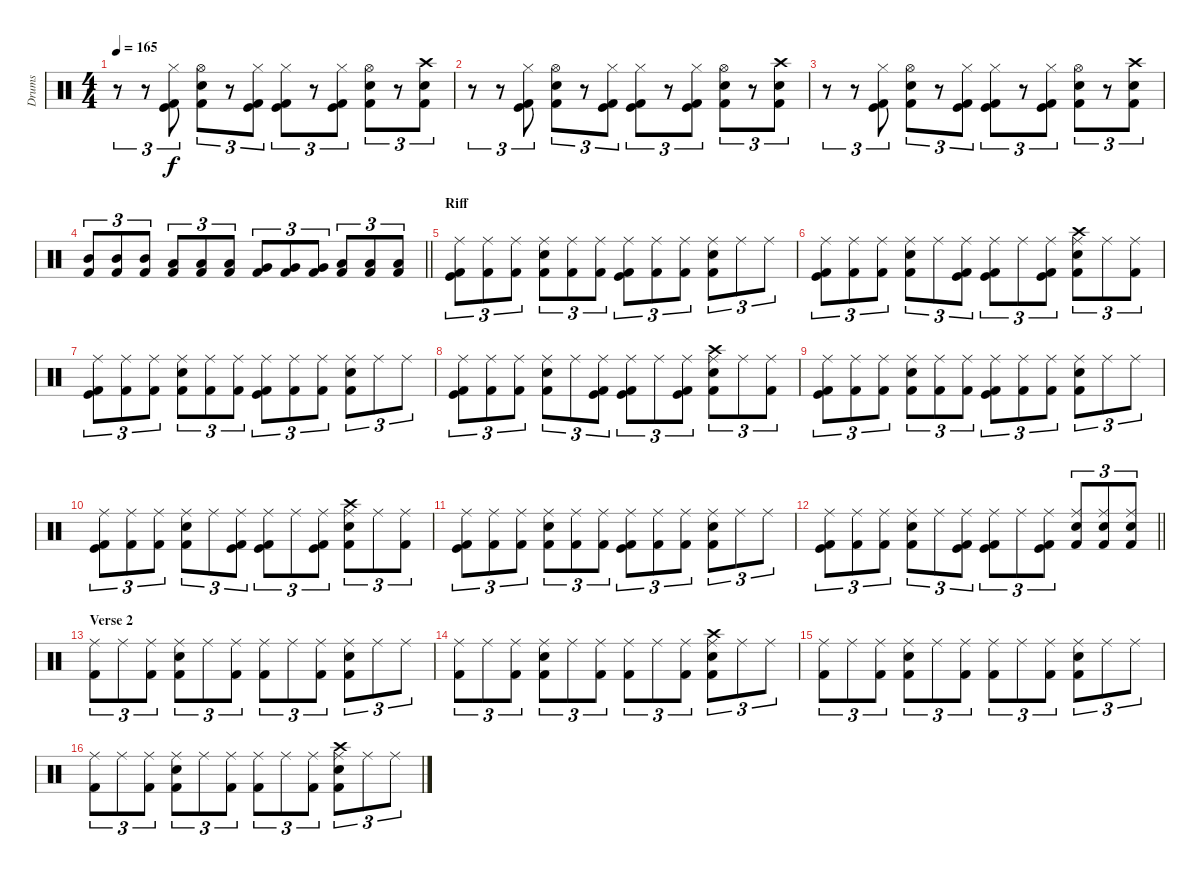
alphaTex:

\track ("Drums" "Drums") {instrument percussion}
\staff {score}
\articulation defaults
\ts (4 4)
\tempo 165
\clef neutral
\ks c
r.8{tu (3 2) dy f} r.8{tu (3 2)} ("Kick (hit)" "Kick (hit) 2" "Hi-Hat (closed)").8{tu (3 2)} ("Snare (hit) 2" "Kick (hit) 2" "Hi-Hat (open)").8{tu (3 2)} r.8{tu (3 2)} ("Kick (hit)" "Kick (hit) 2" "Hi-Hat (closed)").8{tu (3 2)} ("Kick (hit)" "Kick (hit) 2" "Hi-Hat (closed)").8{tu (3 2)} r.8{tu (3 2)} ("Kick (hit)" "Kick (hit) 2" "Hi-Hat (closed)").8{tu (3 2)} ("Snare (hit) 2" "Kick (hit) 2" "Hi-Hat (open)").8{tu (3 2)} r.8{tu (3 2)} ("Snare (hit) 2" "Kick (hit) 2" "Crash high (hit)").8{tu (3 2)} |
r.8{tu (3 2)} r.8{tu (3 2)} ("Kick (hit)" "Kick (hit) 2" "Hi-Hat (closed)").8{tu (3 2)} ("Snare (hit) 2" "Kick (hit) 2" "Hi-Hat (open)").8{tu (3 2)} r.8{tu (3 2)} ("Kick (hit)" "Kick (hit) 2" "Hi-Hat (closed)").8{tu (3 2)} ("Kick (hit)" "Kick (hit) 2" "Hi-Hat (closed)").8{tu (3 2)} r.8{tu (3 2)} ("Kick (hit)" "Kick (hit) 2" "Hi-Hat (closed)").8{tu (3 2)} ("Snare (hit) 2" "Kick (hit) 2" "Hi-Hat (open)").8{tu (3 2)} r.8{tu (3 2)} ("Snare (hit) 2" "Kick (hit) 2" "Crash high (hit)").8{tu (3 2)} |
r.8{tu (3 2)} r.8{tu (3 2)} ("Kick (hit)" "Kick (hit) 2" "Hi-Hat (closed)").8{tu (3 2)} ("Snare (hit) 2" "Kick (hit) 2" "Hi-Hat (open)").8{tu (3 2)} r.8{tu (3 2)} ("Kick (hit)" "Kick (hit) 2" "Hi-Hat (closed)").8{tu (3 2)} ("Kick (hit)" "Kick (hit) 2" "Hi-Hat (closed)").8{tu (3 2)} r.8{tu (3 2)} ("Kick (hit)" "Kick (hit) 2" "Hi-Hat (closed)").8{tu (3 2)} ("Snare (hit) 2" "Kick (hit) 2" "Hi-Hat (open)").8{tu (3 2)} r.8{tu (3 2)} ("Snare (hit) 2" "Kick (hit) 2" "Crash high (hit)").8{tu (3 2)} |
\barLineRight lightlight
("Mid Tom (hit)" "Kick (hit) 2").8{tu (3 2)} ("Mid Tom (hit)" "Kick (hit) 2").8{tu (3 2)} ("Mid Tom (hit)" "Kick (hit) 2").8{tu (3 2)} ("Low Tom (hit)" "Kick (hit) 2").8{tu (3 2)} ("Low Tom (hit)" "Kick (hit) 2").8{tu (3 2)} ("Low Tom (hit)" "Kick (hit) 2").8{tu (3 2)} ("Very Low Tom (hit)" "Kick (hit) 2").8{tu (3 2)} ("Very Low Tom (hit)" "Kick (hit) 2").8{tu (3 2)} ("Very Low Tom (hit)" "Kick (hit) 2").8{tu (3 2)} ("Low Floor Tom (hit)" "Kick (hit) 2").8{tu (3 2)} ("Low Floor Tom (hit)" "Kick (hit) 2").8{tu (3 2)} ("Low Floor Tom (hit)" "Kick (hit) 2").8{tu (3 2)} |
\section ("" "Riff")
("Ride (middle)" "Kick (hit)" "Kick (hit) 2").8{tu (3 2)} ("Ride (middle)" "Kick (hit) 2").8{tu (3 2)} ("Ride (middle)" "Kick (hit) 2").8{tu (3 2)} ("Ride (middle)" "Snare (hit) 2" "Kick (hit) 2").8{tu (3 2)} ("Ride (middle)" "Kick (hit) 2").8{tu (3 2)} ("Ride (middle)" "Kick (hit) 2").8{tu (3 2)} ("Ride (middle)" "Kick (hit)" "Kick (hit) 2").8{tu (3 2)} ("Ride (middle)" "Kick (hit) 2").8{tu (3 2)} ("Ride (middle)" "Kick (hit) 2").8{tu (3 2)} ("Ride (middle)" "Snare (hit) 2" "Kick (hit) 2").8{tu (3 2)} "Ride (middle)".8{tu (3 2)} "Ride (middle)".8{tu (3 2)} |
("Ride (middle)" "Kick (hit)" "Kick (hit) 2").8{tu (3 2)} ("Ride (middle)" "Kick (hit) 2").8{tu (3 2)} ("Ride (middle)" "Kick (hit) 2").8{tu (3 2)} ("Ride (middle)" "Snare (hit) 2" "Kick (hit) 2").8{tu (3 2)} "Ride (middle)".8{tu (3 2)} ("Ride (middle)" "Kick (hit)" "Kick (hit) 2").8{tu (3 2)} ("Ride (middle)" "Kick (hit)" "Kick (hit) 2").8{tu (3 2)} "Ride (middle)".8{tu (3 2)} ("Ride (middle)" "Kick (hit)" "Kick (hit) 2").8{tu (3 2)} ("Ride (middle)" "Snare (hit) 2" "Kick (hit) 2" "Crash high (hit)").8{tu (3 2)} "Ride (middle)".8{tu (3 2)} ("Ride (middle)" "Kick (hit) 2").8{tu (3 2)} |
("Ride (middle)" "Kick (hit)" "Kick (hit) 2").8{tu (3 2)} ("Ride (middle)" "Kick (hit) 2").8{tu (3 2)} ("Ride (middle)" "Kick (hit) 2").8{tu (3 2)} ("Ride (middle)" "Snare (hit) 2" "Kick (hit) 2").8{tu (3 2)} ("Ride (middle)" "Kick (hit) 2").8{tu (3 2)} ("Ride (middle)" "Kick (hit) 2").8{tu (3 2)} ("Ride (middle)" "Kick (hit)" "Kick (hit) 2").8{tu (3 2)} ("Ride (middle)" "Kick (hit) 2").8{tu (3 2)} ("Ride (middle)" "Kick (hit) 2").8{tu (3 2)} ("Ride (middle)" "Snare (hit) 2" "Kick (hit) 2").8{tu (3 2)} "Ride (middle)".8{tu (3 2)} "Ride (middle)".8{tu (3 2)} |
("Ride (middle)" "Kick (hit)" "Kick (hit) 2").8{tu (3 2)} ("Ride (middle)" "Kick (hit) 2").8{tu (3 2)} ("Ride (middle)" "Kick (hit) 2").8{tu (3 2)} ("Ride (middle)" "Snare (hit) 2" "Kick (hit) 2").8{tu (3 2)} "Ride (middle)".8{tu (3 2)} ("Ride (middle)" "Kick (hit)" "Kick (hit) 2").8{tu (3 2)} ("Ride (middle)" "Kick (hit)" "Kick (hit) 2").8{tu (3 2)} "Ride (middle)".8{tu (3 2)} ("Ride (middle)" "Kick (hit)" "Kick (hit) 2").8{tu (3 2)} ("Ride (middle)" "Snare (hit) 2" "Kick (hit) 2" "Crash high (hit)").8{tu (3 2)} "Ride (middle)".8{tu (3 2)} ("Ride (middle)" "Kick (hit) 2").8{tu (3 2)} |
("Ride (middle)" "Kick (hit)" "Kick (hit) 2").8{tu (3 2)} ("Ride (middle)" "Kick (hit) 2").8{tu (3 2)} ("Ride (middle)" "Kick (hit) 2").8{tu (3 2)} ("Ride (middle)" "Snare (hit) 2" "Kick (hit) 2").8{tu (3 2)} ("Ride (middle)" "Kick (hit) 2").8{tu (3 2)} ("Ride (middle)" "Kick (hit) 2").8{tu (3 2)} ("Ride (middle)" "Kick (hit)" "Kick (hit) 2").8{tu (3 2)} ("Ride (middle)" "Kick (hit) 2").8{tu (3 2)} ("Ride (middle)" "Kick (hit) 2").8{tu (3 2)} ("Ride (middle)" "Snare (hit) 2" "Kick (hit) 2").8{tu (3 2)} "Ride (middle)".8{tu (3 2)} "Ride (middle)".8{tu (3 2)} |
("Ride (middle)" "Kick (hit)" "Kick (hit) 2").8{tu (3 2)} ("Ride (middle)" "Kick (hit) 2").8{tu (3 2)} ("Ride (middle)" "Kick (hit) 2").8{tu (3 2)} ("Ride (middle)" "Snare (hit) 2" "Kick (hit) 2").8{tu (3 2)} "Ride (middle)".8{tu (3 2)} ("Ride (middle)" "Kick (hit)" "Kick (hit) 2").8{tu (3 2)} ("Ride (middle)" "Kick (hit)" "Kick (hit) 2").8{tu (3 2)} "Ride (middle)".8{tu (3 2)} ("Ride (middle)" "Kick (hit)" "Kick (hit) 2").8{tu (3 2)} ("Ride (middle)" "Snare (hit) 2" "Kick (hit) 2" "Crash high (hit)").8{tu (3 2)} "Ride (middle)".8{tu (3 2)} ("Ride (middle)" "Kick (hit) 2").8{tu (3 2)} |
("Ride (middle)" "Kick (hit)" "Kick (hit) 2").8{tu (3 2)} ("Ride (middle)" "Kick (hit) 2").8{tu (3 2)} ("Ride (middle)" "Kick (hit) 2").8{tu (3 2)} ("Ride (middle)" "Snare (hit) 2" "Kick (hit) 2").8{tu (3 2)} ("Ride (middle)" "Kick (hit) 2").8{tu (3 2)} ("Ride (middle)" "Kick (hit) 2").8{tu (3 2)} ("Ride (middle)" "Kick (hit)" "Kick (hit) 2").8{tu (3 2)} ("Ride (middle)" "Kick (hit) 2").8{tu (3 2)} ("Ride (middle)" "Kick (hit) 2").8{tu (3 2)} ("Ride (middle)" "Snare (hit) 2" "Kick (hit) 2").8{tu (3 2)} "Ride (middle)".8{tu (3 2)} "Ride (middle)".8{tu (3 2)} |
\barLineRight lightlight
("Ride (middle)" "Kick (hit)" "Kick (hit) 2").8{tu (3 2)} ("Ride (middle)" "Kick (hit) 2").8{tu (3 2)} ("Ride (middle)" "Kick (hit) 2").8{tu (3 2)} ("Ride (middle)" "Snare (hit) 2" "Kick (hit) 2").8{tu (3 2)} "Ride (middle)".8{tu (3 2)} ("Ride (middle)" "Kick (hit)" "Kick (hit) 2").8{tu (3 2)} ("Ride (middle)" "Kick (hit)" "Kick (hit) 2").8{tu (3 2)} "Ride (middle)".8{tu (3 2)} ("Ride (middle)" "Kick (hit)" "Kick (hit) 2").8{tu (3 2)} ("Ride (middle)" "Electric Snare (hit)" "Kick (hit) 2").8{tu (3 2)} ("Ride (middle)" "Electric Snare (hit)" "Kick (hit) 2").8{tu (3 2)} ("Ride (middle)" "Electric Snare (hit)" "Kick (hit) 2").8{tu (3 2)} |
\section ("" "Verse 2")
("Ride (middle)" "Kick (hit) 2").8{tu (3 2)} "Ride (middle)".8{tu (3 2)} ("Ride (middle)" "Kick (hit) 2").8{tu (3 2)} ("Ride (middle)" "Snare (hit) 2" "Kick (hit) 2").8{tu (3 2)} "Ride (middle)".8{tu (3 2)} ("Ride (middle)" "Kick (hit) 2").8{tu (3 2)} ("Ride (middle)" "Kick (hit) 2").8{tu (3 2)} "Ride (middle)".8{tu (3 2)} ("Ride (middle)" "Kick (hit) 2").8{tu (3 2)} ("Ride (middle)" "Snare (hit) 2" "Kick (hit) 2").8{tu (3 2)} "Ride (middle)".8{tu (3 2)} "Ride (middle)".8{tu (3 2)} |
("Ride (middle)" "Kick (hit) 2").8{tu (3 2)} "Ride (middle)".8{tu (3 2)} ("Ride (middle)" "Kick (hit) 2").8{tu (3 2)} ("Ride (middle)" "Snare (hit) 2" "Kick (hit) 2").8{tu (3 2)} "Ride (middle)".8{tu (3 2)} ("Ride (middle)" "Kick (hit) 2").8{tu (3 2)} ("Ride (middle)" "Kick (hit) 2").8{tu (3 2)} "Ride (middle)".8{tu (3 2)} ("Ride (middle)" "Kick (hit) 2").8{tu (3 2)} ("Ride (middle)" "Snare (hit) 2" "Kick (hit) 2" "Crash high (hit)").8{tu (3 2)} "Ride (middle)".8{tu (3 2)} "Ride (middle)".8{tu (3 2)} |
("Ride (middle)" "Kick (hit) 2").8{tu (3 2)} "Ride (middle)".8{tu (3 2)} ("Ride (middle)" "Kick (hit) 2").8{tu (3 2)} ("Ride (middle)" "Snare (hit) 2" "Kick (hit) 2").8{tu (3 2)} "Ride (middle)".8{tu (3 2)} ("Ride (middle)" "Kick (hit) 2").8{tu (3 2)} ("Ride (middle)" "Kick (hit) 2").8{tu (3 2)} "Ride (middle)".8{tu (3 2)} ("Ride (middle)" "Kick (hit) 2").8{tu (3 2)} ("Ride (middle)" "Snare (hit) 2" "Kick (hit) 2").8{tu (3 2)} "Ride (middle)".8{tu (3 2)} "Ride (middle)".8{tu (3 2)} |
("Ride (middle)" "Kick (hit) 2").8{tu (3 2)} "Ride (middle)".8{tu (3 2)} ("Ride (middle)" "Kick (hit) 2").8{tu (3 2)} ("Ride (middle)" "Snare (hit) 2" "Kick (hit) 2").8{tu (3 2)} "Ride (middle)".8{tu (3 2)} ("Ride (middle)" "Kick (hit) 2").8{tu (3 2)} ("Ride (middle)" "Kick (hit) 2").8{tu (3 2)} "Ride (middle)".8{tu (3 2)} ("Ride (middle)" "Kick (hit) 2").8{tu (3 2)} ("Ride (middle)" "Snare (hit) 2" "Kick (hit) 2" "Crash high (hit)").8{tu (3 2)} "Ride (middle)".8{tu (3 2)} "Ride (middle)".8{tu (3 2)}
